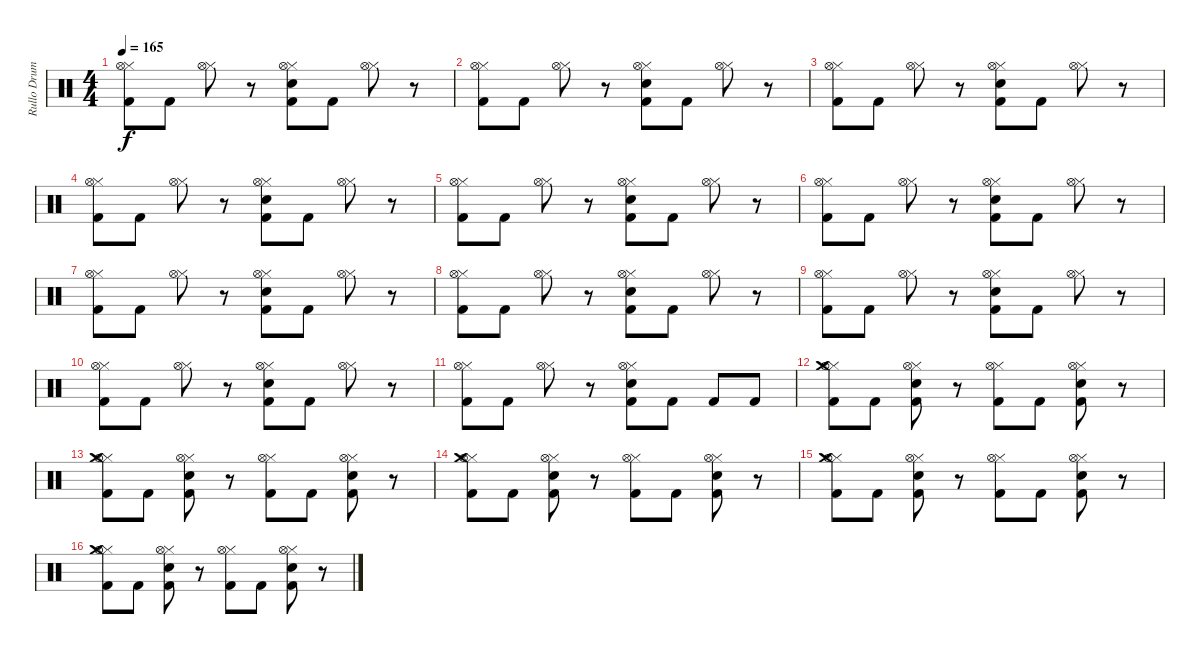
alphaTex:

\track ("Rullo Drums" "Rullo Drum") {instrument percussion}
\staff {score}
\articulation defaults
\ts (4 4)
\tempo 165
\clef neutral
\ks c
("Hi-Hat (closed)" "Kick (hit) 2" "Hi-Hat (open)").8{dy f} "Kick (hit) 2".8 ("Hi-Hat (closed)" "Hi-Hat (open)").8 r.8 ("Hi-Hat (closed)" "Kick (hit) 2" "Electric Snare (hit)" "Hi-Hat (open)").8 "Kick (hit) 2".8 ("Hi-Hat (closed)" "Hi-Hat (open)").8 r.8 |
("Hi-Hat (closed)" "Kick (hit) 2" "Hi-Hat (open)").8 "Kick (hit) 2".8 ("Hi-Hat (closed)" "Hi-Hat (open)").8 r.8 ("Hi-Hat (closed)" "Kick (hit) 2" "Electric Snare (hit)" "Hi-Hat (open)").8 "Kick (hit) 2".8 ("Hi-Hat (closed)" "Hi-Hat (open)").8 r.8 |
("Hi-Hat (closed)" "Kick (hit) 2" "Hi-Hat (open)").8 "Kick (hit) 2".8 ("Hi-Hat (closed)" "Hi-Hat (open)").8 r.8 ("Hi-Hat (closed)" "Kick (hit) 2" "Electric Snare (hit)" "Hi-Hat (open)").8 "Kick (hit) 2".8 ("Hi-Hat (closed)" "Hi-Hat (open)").8 r.8 |
("Hi-Hat (closed)" "Kick (hit) 2" "Hi-Hat (open)").8 "Kick (hit) 2".8 ("Hi-Hat (closed)" "Hi-Hat (open)").8 r.8 ("Hi-Hat (closed)" "Kick (hit) 2" "Electric Snare (hit)" "Hi-Hat (open)").8 "Kick (hit) 2".8 ("Hi-Hat (closed)" "Hi-Hat (open)").8 r.8 |
("Hi-Hat (closed)" "Kick (hit) 2" "Hi-Hat (open)").8 "Kick (hit) 2".8 ("Hi-Hat (closed)" "Hi-Hat (open)").8 r.8 ("Hi-Hat (closed)" "Kick (hit) 2" "Electric Snare (hit)" "Hi-Hat (open)").8 "Kick (hit) 2".8 ("Hi-Hat (closed)" "Hi-Hat (open)").8 r.8 |
("Hi-Hat (closed)" "Kick (hit) 2" "Hi-Hat (open)").8 "Kick (hit) 2".8 ("Hi-Hat (closed)" "Hi-Hat (open)").8 r.8 ("Hi-Hat (closed)" "Kick (hit) 2" "Electric Snare (hit)" "Hi-Hat (open)").8 "Kick (hit) 2".8 ("Hi-Hat (closed)" "Hi-Hat (open)").8 r.8 |
("Hi-Hat (closed)" "Kick (hit) 2" "Hi-Hat (open)").8 "Kick (hit) 2".8 ("Hi-Hat (closed)" "Hi-Hat (open)").8 r.8 ("Hi-Hat (closed)" "Kick (hit) 2" "Electric Snare (hit)" "Hi-Hat (open)").8 "Kick (hit) 2".8 ("Hi-Hat (closed)" "Hi-Hat (open)").8 r.8 |
("Hi-Hat (closed)" "Kick (hit) 2" "Hi-Hat (open)").8 "Kick (hit) 2".8 ("Hi-Hat (closed)" "Hi-Hat (open)").8 r.8 ("Hi-Hat (closed)" "Kick (hit) 2" "Electric Snare (hit)" "Hi-Hat (open)").8 "Kick (hit) 2".8 ("Hi-Hat (closed)" "Hi-Hat (open)").8 r.8 |
("Hi-Hat (closed)" "Kick (hit) 2" "Hi-Hat (open)").8 "Kick (hit) 2".8 ("Hi-Hat (closed)" "Hi-Hat (open)").8 r.8 ("Hi-Hat (closed)" "Kick (hit) 2" "Electric Snare (hit)" "Hi-Hat (open)").8 "Kick (hit) 2".8 ("Hi-Hat (closed)" "Hi-Hat (open)").8 r.8 |
("Hi-Hat (closed)" "Kick (hit) 2" "Hi-Hat (open)").8 "Kick (hit) 2".8 ("Hi-Hat (closed)" "Hi-Hat (open)").8 r.8 ("Hi-Hat (closed)" "Kick (hit) 2" "Electric Snare (hit)" "Hi-Hat (open)").8 "Kick (hit) 2".8 ("Hi-Hat (closed)" "Hi-Hat (open)").8 r.8 |
("Hi-Hat (closed)" "Kick (hit) 2" "Hi-Hat (open)").8 "Kick (hit) 2".8 ("Hi-Hat (closed)" "Hi-Hat (open)").8 r.8 ("Hi-Hat (closed)" "Kick (hit) 2" "Hi-Hat (open)" "Electric Snare (hit)").8 "Kick (hit) 2".8 "Kick (hit) 2".8 "Kick (hit) 2".8 |
("Hi-Hat (closed)" "Kick (hit) 2" "Crash medium (hit)" "Hi-Hat (open)").8 "Kick (hit) 2".8 ("Electric Snare (hit)" "Hi-Hat (closed)" "Kick (hit) 2" "Hi-Hat (open)").8 r.8 ("Hi-Hat (closed)" "Kick (hit) 2" "Hi-Hat (open)").8 "Kick (hit) 2".8 ("Hi-Hat (closed)" "Electric Snare (hit)" "Kick (hit) 2" "Hi-Hat (open)").8 r.8 |
("Hi-Hat (closed)" "Kick (hit) 2" "Crash medium (hit)" "Hi-Hat (open)").8 "Kick (hit) 2".8 ("Electric Snare (hit)" "Hi-Hat (closed)" "Kick (hit) 2" "Hi-Hat (open)").8 r.8 ("Hi-Hat (closed)" "Kick (hit) 2" "Hi-Hat (open)").8 "Kick (hit) 2".8 ("Hi-Hat (closed)" "Electric Snare (hit)" "Kick (hit) 2" "Hi-Hat (open)").8 r.8 |
("Hi-Hat (closed)" "Kick (hit) 2" "Crash medium (hit)" "Hi-Hat (open)").8 "Kick (hit) 2".8 ("Electric Snare (hit)" "Hi-Hat (closed)" "Kick (hit) 2" "Hi-Hat (open)").8 r.8 ("Hi-Hat (closed)" "Kick (hit) 2" "Hi-Hat (open)").8 "Kick (hit) 2".8 ("Hi-Hat (closed)" "Electric Snare (hit)" "Kick (hit) 2" "Hi-Hat (open)").8 r.8 |
("Hi-Hat (closed)" "Kick (hit) 2" "Crash medium (hit)" "Hi-Hat (open)").8 "Kick (hit) 2".8 ("Electric Snare (hit)" "Hi-Hat (closed)" "Kick (hit) 2" "Hi-Hat (open)").8 r.8 ("Hi-Hat (closed)" "Kick (hit) 2" "Hi-Hat (open)").8 "Kick (hit) 2".8 ("Hi-Hat (closed)" "Electric Snare (hit)" "Kick (hit) 2" "Hi-Hat (open)").8 r.8 |
("Hi-Hat (closed)" "Kick (hit) 2" "Crash medium (hit)" "Hi-Hat (open)").8 "Kick (hit) 2".8 ("Electric Snare (hit)" "Hi-Hat (closed)" "Kick (hit) 2" "Hi-Hat (open)").8 r.8 ("Hi-Hat (closed)" "Kick (hit) 2" "Hi-Hat (open)").8 "Kick (hit) 2".8 ("Hi-Hat (closed)" "Electric Snare (hit)" "Kick (hit) 2" "Hi-Hat (open)").8 r.8
